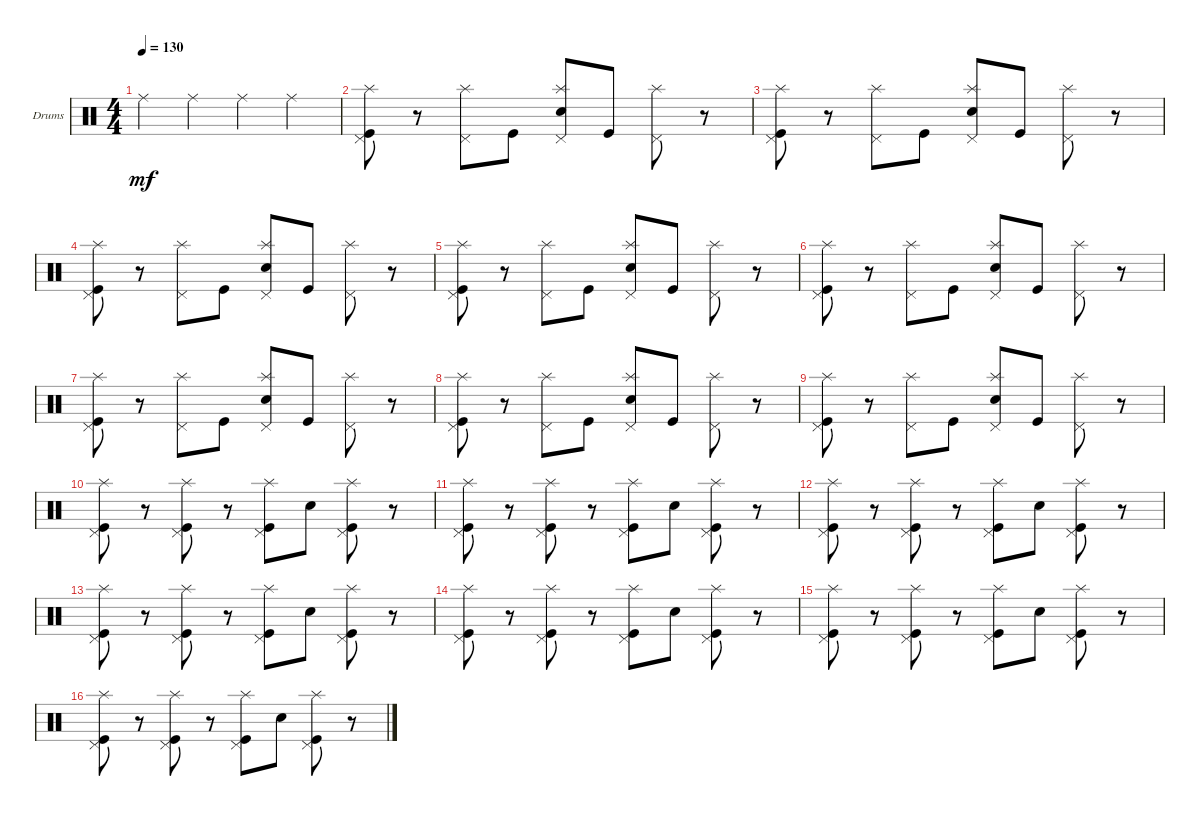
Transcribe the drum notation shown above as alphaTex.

\defaultSystemsLayout 4
\bracketExtendMode groupsimilarinstruments
\firstSystemTrackNameOrientation horizontal
\otherSystemsTrackNameOrientation horizontal
\track ("Drumkit" "Drums") {instrument percussion}
\staff {score}
\articulation defaults
\ts (4 4)
\tempo 130
\clef neutral
\ks c "Ride (middle)".4{dy mf} "Ride (middle)".4 "Ride (middle)".4 "Ride (middle)".4
|
\scale
0.472222 ("Pedal Hi-Hat (hit)" "Kick (hit)" "Splash (hit)").8 r.8 ("Pedal Hi-Hat (hit)" "Splash (hit)").8 "Kick (hit)".8 ("Pedal Hi-Hat (hit)" "Snare (hit) 2" "Splash (hit)").8 "Kick (hit)".8 ("Pedal Hi-Hat (hit)" "Splash (hit)").8 r.8 |
\scale
0.263889 ("Pedal Hi-Hat (hit)" "Kick (hit)" "Splash (hit)").8 r.8 ("Pedal Hi-Hat (hit)" "Splash (hit)").8 "Kick (hit)".8 ("Pedal Hi-Hat (hit)" "Snare (hit) 2" "Splash (hit)").8 "Kick (hit)".8 ("Pedal Hi-Hat (hit)" "Splash (hit)").8 r.8 |
\scale
0.263889 ("Pedal Hi-Hat (hit)" "Kick (hit)" "Splash (hit)").8 r.8 ("Pedal Hi-Hat (hit)" "Splash (hit)").8 "Kick (hit)".8 ("Pedal Hi-Hat (hit)" "Snare (hit) 2" "Splash (hit)").8 "Kick (hit)".8 ("Pedal Hi-Hat (hit)" "Splash (hit)").8 r.8 |
\scale
0.333333 ("Pedal Hi-Hat (hit)" "Kick (hit)" "Splash (hit)").8 r.8 ("Pedal Hi-Hat (hit)" "Splash (hit)").8 "Kick (hit)".8 ("Pedal Hi-Hat (hit)" "Snare (hit) 2" "Splash (hit)").8 "Kick (hit)".8 ("Pedal Hi-Hat (hit)" "Splash (hit)").8 r.8 |
\scale
0.333333 ("Pedal Hi-Hat (hit)" "Kick (hit)" "Splash (hit)").8 r.8 ("Pedal Hi-Hat (hit)" "Splash (hit)").8 "Kick (hit)".8 ("Pedal Hi-Hat (hit)" "Snare (hit) 2" "Splash (hit)").8 "Kick (hit)".8 ("Pedal Hi-Hat (hit)" "Splash (hit)").8 r.8 |
\scale
0.333333 ("Pedal Hi-Hat (hit)" "Kick (hit)" "Splash (hit)").8 r.8 ("Pedal Hi-Hat (hit)" "Splash (hit)").8 "Kick (hit)".8 ("Pedal Hi-Hat (hit)" "Snare (hit) 2" "Splash (hit)").8 "Kick (hit)".8 ("Pedal Hi-Hat (hit)" "Splash (hit)").8 r.8 |
\scale
0.333333 ("Pedal Hi-Hat (hit)" "Kick (hit)" "Splash (hit)").8 r.8 ("Pedal Hi-Hat (hit)" "Splash (hit)").8 "Kick (hit)".8 ("Pedal Hi-Hat (hit)" "Snare (hit) 2" "Splash (hit)").8 "Kick (hit)".8 ("Pedal Hi-Hat (hit)" "Splash (hit)").8 r.8 |
\scale
0.333333 ("Pedal Hi-Hat (hit)" "Kick (hit)" "Splash (hit)").8 r.8 ("Pedal Hi-Hat (hit)" "Splash (hit)").8 "Kick (hit)".8 ("Pedal Hi-Hat (hit)" "Snare (hit) 2" "Splash (hit)").8 "Kick (hit)".8 ("Pedal Hi-Hat (hit)" "Splash (hit)").8 r.8 |
\scale
0.333333 ("Pedal Hi-Hat (hit)" "Kick (hit)" "Splash (hit)").8 r.8 ("Pedal Hi-Hat (hit)" "Kick (hit)" "Splash (hit)").8 r.8 ("Pedal Hi-Hat (hit)" "Splash (hit)" "Kick (hit)").8 "Snare (hit) 2".8 ("Pedal Hi-Hat (hit)" "Kick (hit)" "Splash (hit)").8 r.8 |
\scale
0.333333 ("Pedal Hi-Hat (hit)" "Kick (hit)" "Splash (hit)").8 r.8 ("Pedal Hi-Hat (hit)" "Kick (hit)" "Splash (hit)").8 r.8 ("Pedal Hi-Hat (hit)" "Splash (hit)" "Kick (hit)").8 "Snare (hit) 2".8 ("Pedal Hi-Hat (hit)" "Kick (hit)" "Splash (hit)").8 r.8 |
\scale
0.333333 ("Pedal Hi-Hat (hit)" "Kick (hit)" "Splash (hit)").8 r.8 ("Pedal Hi-Hat (hit)" "Kick (hit)" "Splash (hit)").8 r.8 ("Pedal Hi-Hat (hit)" "Splash (hit)" "Kick (hit)").8 "Snare (hit) 2".8 ("Pedal Hi-Hat (hit)" "Kick (hit)" "Splash (hit)").8 r.8 |
\scale
0.333333 ("Pedal Hi-Hat (hit)" "Kick (hit)" "Splash (hit)").8 r.8 ("Pedal Hi-Hat (hit)" "Kick (hit)" "Splash (hit)").8 r.8 ("Pedal Hi-Hat (hit)" "Splash (hit)" "Kick (hit)").8 "Snare (hit) 2".8 ("Pedal Hi-Hat (hit)" "Kick (hit)" "Splash (hit)").8 r.8 |
\scale
0.333333 ("Pedal Hi-Hat (hit)" "Kick (hit)" "Splash (hit)").8 r.8 ("Pedal Hi-Hat (hit)" "Kick (hit)" "Splash (hit)").8 r.8 ("Pedal Hi-Hat (hit)" "Splash (hit)" "Kick (hit)").8 "Snare (hit) 2".8 ("Pedal Hi-Hat (hit)" "Kick (hit)" "Splash (hit)").8 r.8 |
\scale
0.333333 ("Pedal Hi-Hat (hit)" "Kick (hit)" "Splash (hit)").8 r.8 ("Pedal Hi-Hat (hit)" "Kick (hit)" "Splash (hit)").8 r.8 ("Pedal Hi-Hat (hit)" "Splash (hit)" "Kick (hit)").8 "Snare (hit) 2".8 ("Pedal Hi-Hat (hit)" "Kick (hit)" "Splash (hit)").8 r.8 |
\scale
0.333333 ("Pedal Hi-Hat (hit)" "Kick (hit)" "Splash (hit)").8 r.8 ("Pedal Hi-Hat (hit)" "Kick (hit)" "Splash (hit)").8 r.8 ("Pedal Hi-Hat (hit)" "Splash (hit)" "Kick (hit)").8 "Snare (hit) 2".8 ("Pedal Hi-Hat (hit)" "Kick (hit)" "Splash (hit)").8 r.8
